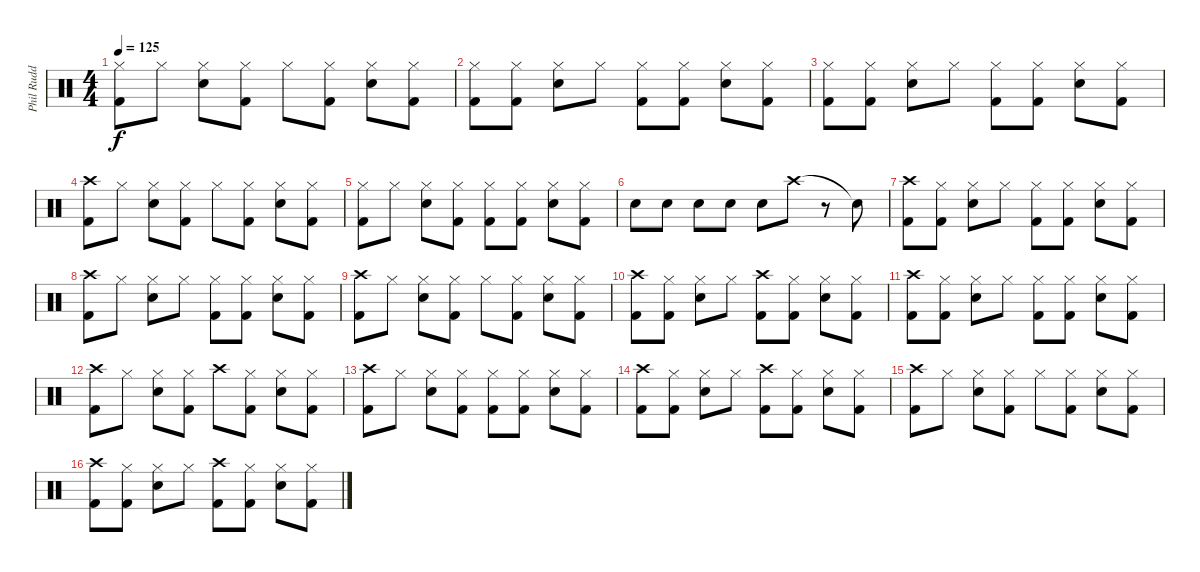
\track ("Phil Rudd" "Phil Rudd") {instrument percussion}
\staff {score}
\articulation defaults
\ts (4 4)
\tempo 125
\clef neutral
\ks c
("Hi-Hat (closed)" "Kick (hit) 2").8{dy f} "Hi-Hat (closed)".8 ("Hi-Hat (closed)" "Snare (hit) 2").8 ("Hi-Hat (closed)" "Kick (hit) 2").8 "Hi-Hat (closed)".8 ("Hi-Hat (closed)" "Kick (hit) 2").8 ("Hi-Hat (closed)" "Snare (hit) 2").8 ("Hi-Hat (closed)" "Kick (hit) 2").8 |
("Hi-Hat (closed)" "Kick (hit) 2").8 ("Hi-Hat (closed)" "Kick (hit) 2").8 ("Hi-Hat (closed)" "Snare (hit) 2").8 "Hi-Hat (closed)".8 ("Hi-Hat (closed)" "Kick (hit) 2").8 ("Hi-Hat (closed)" "Kick (hit) 2").8 ("Hi-Hat (closed)" "Snare (hit) 2").8 ("Hi-Hat (closed)" "Kick (hit) 2").8 |
("Hi-Hat (closed)" "Kick (hit) 2").8 ("Hi-Hat (closed)" "Kick (hit) 2").8 ("Hi-Hat (closed)" "Snare (hit) 2").8 "Hi-Hat (closed)".8 ("Hi-Hat (closed)" "Kick (hit) 2").8 ("Hi-Hat (closed)" "Kick (hit) 2").8 ("Hi-Hat (closed)" "Snare (hit) 2").8 ("Hi-Hat (closed)" "Kick (hit) 2").8 |
("Crash high (hit)" "Kick (hit) 2").8 "Hi-Hat (closed)".8 ("Hi-Hat (closed)" "Snare (hit) 2").8 ("Hi-Hat (closed)" "Kick (hit) 2").8 "Hi-Hat (closed)".8 ("Hi-Hat (closed)" "Kick (hit) 2").8 ("Hi-Hat (closed)" "Snare (hit) 2").8 ("Hi-Hat (closed)" "Kick (hit) 2").8 |
("Hi-Hat (closed)" "Kick (hit) 2").8 "Hi-Hat (closed)".8 ("Hi-Hat (closed)" "Snare (hit) 2").8 ("Hi-Hat (closed)" "Kick (hit) 2").8 ("Hi-Hat (closed)" "Kick (hit) 2").8 ("Hi-Hat (closed)" "Kick (hit) 2").8 ("Hi-Hat (closed)" "Snare (hit) 2").8 ("Hi-Hat (closed)" "Kick (hit) 2").8 |
"Snare (hit) 2".8 "Snare (hit) 2".8 "Snare (hit) 2".8 "Snare (hit) 2".8 "Snare (hit) 2".8 "Crash high (hit)".8 r.8 "Snare (hit)"{t}.8 |
("Crash high (hit)" "Kick (hit) 2").8 ("Hi-Hat (closed)" "Kick (hit) 2").8 ("Hi-Hat (closed)" "Snare (hit) 2").8 "Hi-Hat (closed)".8 ("Hi-Hat (closed)" "Kick (hit) 2").8 ("Hi-Hat (closed)" "Kick (hit) 2").8 ("Hi-Hat (closed)" "Snare (hit) 2").8 ("Hi-Hat (closed)" "Kick (hit) 2").8 |
("Crash high (hit)" "Kick (hit) 2").8 "Hi-Hat (closed)".8 ("Hi-Hat (closed)" "Snare (hit) 2").8 "Hi-Hat (closed)".8 ("Hi-Hat (closed)" "Kick (hit) 2").8 ("Hi-Hat (closed)" "Kick (hit) 2").8 ("Hi-Hat (closed)" "Snare (hit) 2").8 ("Hi-Hat (closed)" "Kick (hit) 2").8 |
("Crash high (hit)" "Kick (hit) 2").8 "Hi-Hat (closed)".8 ("Hi-Hat (closed)" "Snare (hit) 2").8 ("Hi-Hat (closed)" "Kick (hit) 2").8 "Hi-Hat (closed)".8 ("Hi-Hat (closed)" "Kick (hit) 2").8 ("Hi-Hat (closed)" "Snare (hit) 2").8 ("Hi-Hat (closed)" "Kick (hit) 2").8 |
("Crash high (hit)" "Kick (hit) 2").8 ("Hi-Hat (closed)" "Kick (hit) 2").8 ("Hi-Hat (closed)" "Snare (hit) 2").8 "Hi-Hat (closed)".8 ("Crash high (hit)" "Kick (hit) 2").8 ("Hi-Hat (closed)" "Kick (hit) 2").8 ("Hi-Hat (closed)" "Snare (hit) 2").8 ("Hi-Hat (closed)" "Kick (hit) 2").8 |
("Crash high (hit)" "Kick (hit) 2").8 ("Hi-Hat (closed)" "Kick (hit) 2").8 ("Hi-Hat (closed)" "Snare (hit) 2").8 "Hi-Hat (closed)".8 ("Hi-Hat (closed)" "Kick (hit) 2").8 ("Hi-Hat (closed)" "Kick (hit) 2").8 ("Hi-Hat (closed)" "Snare (hit) 2").8 ("Hi-Hat (closed)" "Kick (hit) 2").8 |
("Crash high (hit)" "Kick (hit) 2").8 "Hi-Hat (closed)".8 ("Hi-Hat (closed)" "Snare (hit) 2").8 ("Hi-Hat (closed)" "Kick (hit) 2").8 "Crash high (hit)".8 ("Hi-Hat (closed)" "Kick (hit) 2").8 ("Hi-Hat (closed)" "Snare (hit) 2").8 ("Hi-Hat (closed)" "Kick (hit) 2").8 |
("Crash high (hit)" "Kick (hit) 2").8 "Hi-Hat (closed)".8 ("Hi-Hat (closed)" "Snare (hit) 2").8 ("Hi-Hat (closed)" "Kick (hit) 2").8 ("Hi-Hat (closed)" "Kick (hit) 2").8 ("Hi-Hat (closed)" "Kick (hit) 2").8 ("Hi-Hat (closed)" "Snare (hit) 2").8 ("Hi-Hat (closed)" "Kick (hit) 2").8 |
("Crash high (hit)" "Kick (hit) 2").8 ("Hi-Hat (closed)" "Kick (hit) 2").8 ("Hi-Hat (closed)" "Snare (hit) 2").8 "Hi-Hat (closed)".8 ("Crash high (hit)" "Kick (hit) 2").8 ("Hi-Hat (closed)" "Kick (hit) 2").8 ("Hi-Hat (closed)" "Snare (hit) 2").8 ("Hi-Hat (closed)" "Kick (hit) 2").8 |
("Crash high (hit)" "Kick (hit) 2").8 "Hi-Hat (closed)".8 ("Hi-Hat (closed)" "Snare (hit) 2").8 ("Hi-Hat (closed)" "Kick (hit) 2").8 "Hi-Hat (closed)".8 ("Hi-Hat (closed)" "Kick (hit) 2").8 ("Hi-Hat (closed)" "Snare (hit) 2").8 ("Hi-Hat (closed)" "Kick (hit) 2").8 |
("Crash high (hit)" "Kick (hit) 2").8 ("Hi-Hat (closed)" "Kick (hit) 2").8 ("Hi-Hat (closed)" "Snare (hit) 2").8 "Hi-Hat (closed)".8 ("Crash high (hit)" "Kick (hit) 2").8 ("Hi-Hat (closed)" "Kick (hit) 2").8 ("Hi-Hat (closed)" "Snare (hit) 2").8 ("Hi-Hat (closed)" "Kick (hit) 2").8
